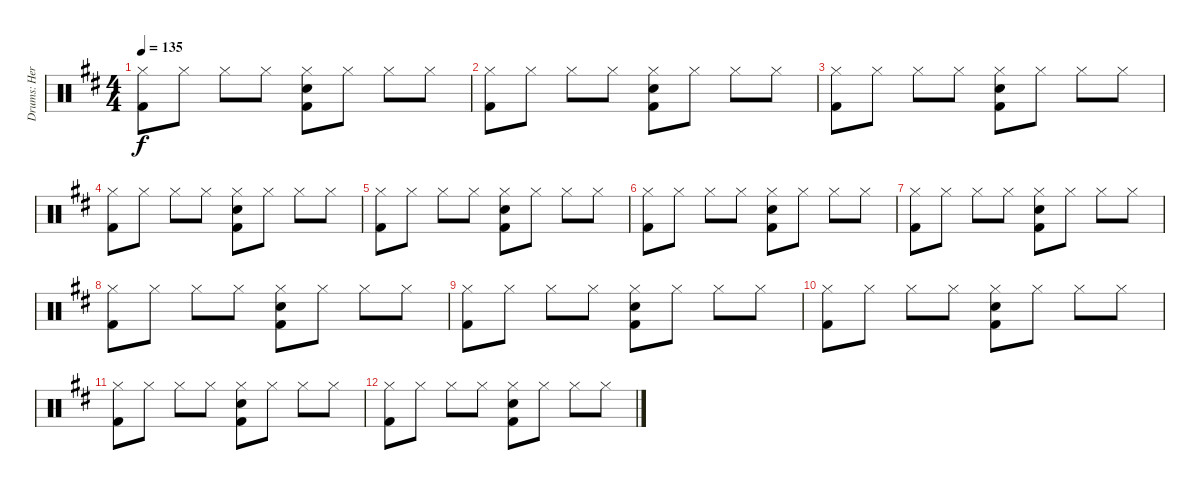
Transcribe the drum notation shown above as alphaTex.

\track ("Drums: Herman" "Drums: Her") {instrument percussion}
\staff {score}
\articulation defaults
\ts (4 4)
\tempo 135
\clef neutral
\ks d
("Hi-Hat (closed)" "Kick (hit) 2").8{dy f} "Hi-Hat (closed)".8 "Hi-Hat (closed)".8 "Hi-Hat (closed)".8 ("Hi-Hat (closed)" "Snare (hit) 2" "Kick (hit) 2").8 "Hi-Hat (closed)".8 "Hi-Hat (closed)".8 "Hi-Hat (closed)".8 |
("Hi-Hat (closed)" "Kick (hit) 2").8 "Hi-Hat (closed)".8 "Hi-Hat (closed)".8 "Hi-Hat (closed)".8 ("Hi-Hat (closed)" "Snare (hit) 2" "Kick (hit) 2").8 "Hi-Hat (closed)".8 "Hi-Hat (closed)".8 "Hi-Hat (closed)".8 |
("Hi-Hat (closed)" "Kick (hit) 2").8 "Hi-Hat (closed)".8 "Hi-Hat (closed)".8 "Hi-Hat (closed)".8 ("Hi-Hat (closed)" "Snare (hit) 2" "Kick (hit) 2").8 "Hi-Hat (closed)".8 "Hi-Hat (closed)".8 "Hi-Hat (closed)".8 |
("Hi-Hat (closed)" "Kick (hit) 2").8 "Hi-Hat (closed)".8 "Hi-Hat (closed)".8 "Hi-Hat (closed)".8 ("Hi-Hat (closed)" "Snare (hit) 2" "Kick (hit) 2").8 "Hi-Hat (closed)".8 "Hi-Hat (closed)".8 "Hi-Hat (closed)".8 |
("Hi-Hat (closed)" "Kick (hit) 2").8 "Hi-Hat (closed)".8 "Hi-Hat (closed)".8 "Hi-Hat (closed)".8 ("Hi-Hat (closed)" "Snare (hit) 2" "Kick (hit) 2").8 "Hi-Hat (closed)".8 "Hi-Hat (closed)".8 "Hi-Hat (closed)".8 |
("Hi-Hat (closed)" "Kick (hit) 2").8 "Hi-Hat (closed)".8 "Hi-Hat (closed)".8 "Hi-Hat (closed)".8 ("Hi-Hat (closed)" "Snare (hit) 2" "Kick (hit) 2").8 "Hi-Hat (closed)".8 "Hi-Hat (closed)".8 "Hi-Hat (closed)".8 |
("Hi-Hat (closed)" "Kick (hit) 2").8 "Hi-Hat (closed)".8 "Hi-Hat (closed)".8 "Hi-Hat (closed)".8 ("Hi-Hat (closed)" "Snare (hit) 2" "Kick (hit) 2").8 "Hi-Hat (closed)".8 "Hi-Hat (closed)".8 "Hi-Hat (closed)".8 |
("Hi-Hat (closed)" "Kick (hit) 2").8 "Hi-Hat (closed)".8 "Hi-Hat (closed)".8 "Hi-Hat (closed)".8 ("Hi-Hat (closed)" "Snare (hit) 2" "Kick (hit) 2").8 "Hi-Hat (closed)".8 "Hi-Hat (closed)".8 "Hi-Hat (closed)".8 |
("Hi-Hat (closed)" "Kick (hit) 2").8 "Hi-Hat (closed)".8 "Hi-Hat (closed)".8 "Hi-Hat (closed)".8 ("Hi-Hat (closed)" "Snare (hit) 2" "Kick (hit) 2").8 "Hi-Hat (closed)".8 "Hi-Hat (closed)".8 "Hi-Hat (closed)".8 |
("Hi-Hat (closed)" "Kick (hit) 2").8 "Hi-Hat (closed)".8 "Hi-Hat (closed)".8 "Hi-Hat (closed)".8 ("Hi-Hat (closed)" "Snare (hit) 2" "Kick (hit) 2").8 "Hi-Hat (closed)".8 "Hi-Hat (closed)".8 "Hi-Hat (closed)".8 |
("Hi-Hat (closed)" "Kick (hit) 2").8 "Hi-Hat (closed)".8 "Hi-Hat (closed)".8 "Hi-Hat (closed)".8 ("Hi-Hat (closed)" "Snare (hit) 2" "Kick (hit) 2").8 "Hi-Hat (closed)".8 "Hi-Hat (closed)".8 "Hi-Hat (closed)".8 |
("Hi-Hat (closed)" "Kick (hit) 2").8 "Hi-Hat (closed)".8 "Hi-Hat (closed)".8 "Hi-Hat (closed)".8 ("Hi-Hat (closed)" "Snare (hit) 2" "Kick (hit) 2").8 "Hi-Hat (closed)".8 "Hi-Hat (closed)".8 "Hi-Hat (closed)".8
